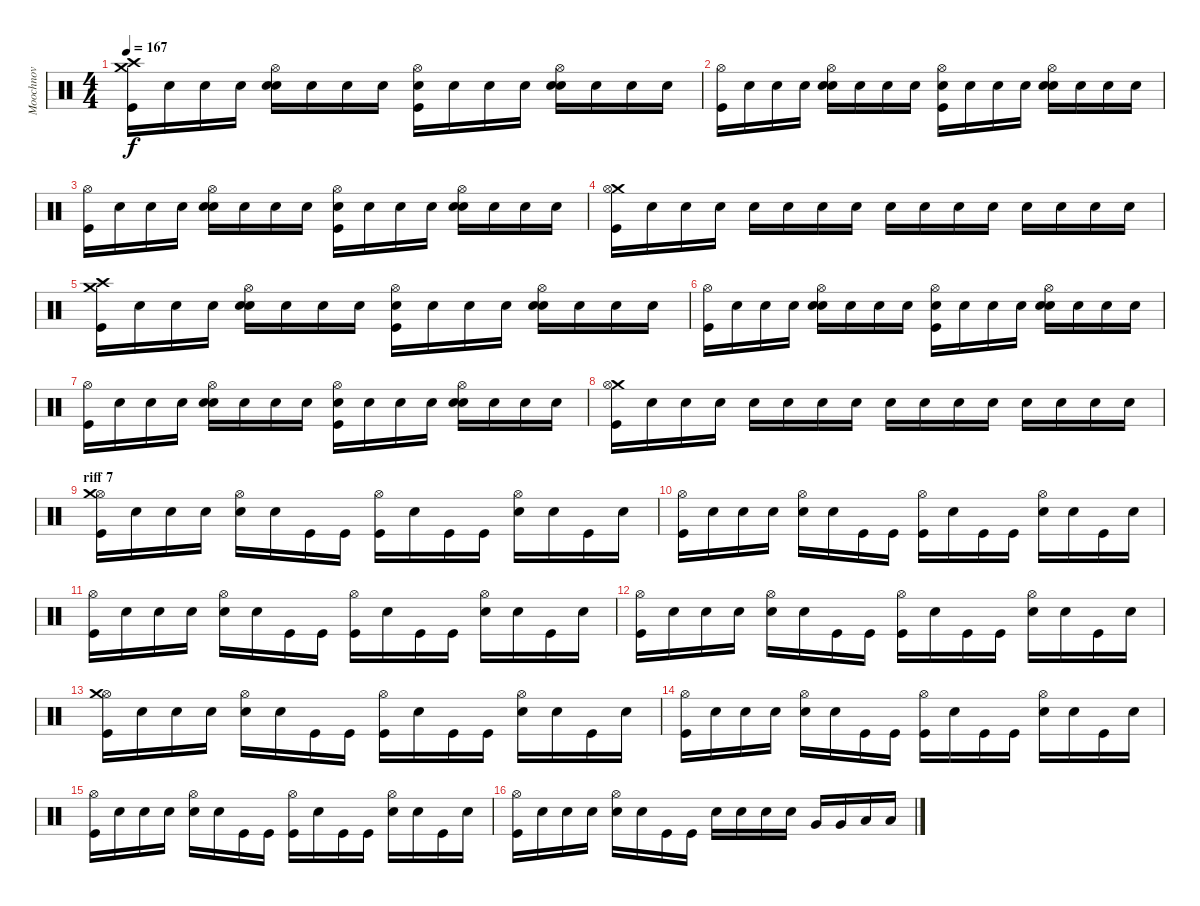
\track ("Moochnov" "Moochnov") {instrument percussion}
\staff {score}
\articulation defaults
\ts (4 4)
\tempo 167
\clef neutral
\ks c
("Kick (hit)" "Crash medium (hit)" "Crash high (hit)").16{dy f} "Snare (hit)"{x}.16 "Snare (hit)"{x}.16 "Snare (hit)"{x}.16 ("Snare (hit) 2" "Snare (hit)"{x} "Hi-Hat (open)").16 "Snare (hit)"{x}.16 "Snare (hit)"{x}.16 "Snare (hit)"{x}.16 ("Kick (hit)" "Snare (hit)"{x} "Hi-Hat (open)").16 "Snare (hit)"{x}.16 "Snare (hit)"{x}.16 "Snare (hit)"{x}.16 ("Snare (hit) 2" "Snare (hit)"{x} "Hi-Hat (open)").16 "Snare (hit)"{x}.16 "Snare (hit)"{x}.16 "Snare (hit)"{x}.16 |
("Kick (hit)" "Hi-Hat (open)").16 "Snare (hit)"{x}.16 "Snare (hit)"{x}.16 "Snare (hit)"{x}.16 ("Snare (hit) 2" "Snare (hit)"{x} "Hi-Hat (open)").16 "Snare (hit)"{x}.16 "Snare (hit)"{x}.16 "Snare (hit)"{x}.16 ("Kick (hit)" "Snare (hit)"{x} "Hi-Hat (open)").16 "Snare (hit)"{x}.16 "Snare (hit)"{x}.16 "Snare (hit)"{x}.16 ("Snare (hit) 2" "Snare (hit)"{x} "Hi-Hat (open)").16 "Snare (hit)"{x}.16 "Snare (hit)"{x}.16 "Snare (hit)"{x}.16 |
("Kick (hit)" "Hi-Hat (open)").16 "Snare (hit)"{x}.16 "Snare (hit)"{x}.16 "Snare (hit)"{x}.16 ("Snare (hit) 2" "Snare (hit)"{x} "Hi-Hat (open)").16 "Snare (hit)"{x}.16 "Snare (hit)"{x}.16 "Snare (hit)"{x}.16 ("Kick (hit)" "Snare (hit)"{x} "Hi-Hat (open)").16 "Snare (hit)"{x}.16 "Snare (hit)"{x}.16 "Snare (hit)"{x}.16 ("Snare (hit) 2" "Snare (hit)"{x} "Hi-Hat (open)").16 "Snare (hit)"{x}.16 "Snare (hit)"{x}.16 "Snare (hit)"{x}.16 |
("Kick (hit)" "Crash medium (hit)" "Hi-Hat (open)").16 "Snare (hit)"{x}.16 "Snare (hit)"{x}.16 "Snare (hit)"{x}.16 "Snare (hit)"{x}.16 "Snare (hit)"{x}.16 "Snare (hit)"{x}.16 "Snare (hit)"{x}.16 "Snare (hit)"{x}.16 "Snare (hit)"{x}.16 "Snare (hit)"{x}.16 "Snare (hit)"{x}.16 "Snare (hit)"{x}.16 "Snare (hit)"{x}.16 "Snare (hit)"{x}.16 "Snare (hit)"{x}.16 |
("Kick (hit)" "Crash medium (hit)" "Crash high (hit)").16 "Snare (hit)"{x}.16 "Snare (hit)"{x}.16 "Snare (hit)"{x}.16 ("Snare (hit) 2" "Snare (hit)"{x} "Hi-Hat (open)").16 "Snare (hit)"{x}.16 "Snare (hit)"{x}.16 "Snare (hit)"{x}.16 ("Kick (hit)" "Snare (hit)"{x} "Hi-Hat (open)").16 "Snare (hit)"{x}.16 "Snare (hit)"{x}.16 "Snare (hit)"{x}.16 ("Snare (hit) 2" "Snare (hit)"{x} "Hi-Hat (open)").16 "Snare (hit)"{x}.16 "Snare (hit)"{x}.16 "Snare (hit)"{x}.16 |
("Kick (hit)" "Hi-Hat (open)").16 "Snare (hit)"{x}.16 "Snare (hit)"{x}.16 "Snare (hit)"{x}.16 ("Snare (hit) 2" "Snare (hit)"{x} "Hi-Hat (open)").16 "Snare (hit)"{x}.16 "Snare (hit)"{x}.16 "Snare (hit)"{x}.16 ("Kick (hit)" "Snare (hit)"{x} "Hi-Hat (open)").16 "Snare (hit)"{x}.16 "Snare (hit)"{x}.16 "Snare (hit)"{x}.16 ("Snare (hit) 2" "Snare (hit)"{x} "Hi-Hat (open)").16 "Snare (hit)"{x}.16 "Snare (hit)"{x}.16 "Snare (hit)"{x}.16 |
("Kick (hit)" "Hi-Hat (open)").16 "Snare (hit)"{x}.16 "Snare (hit)"{x}.16 "Snare (hit)"{x}.16 ("Snare (hit) 2" "Snare (hit)"{x} "Hi-Hat (open)").16 "Snare (hit)"{x}.16 "Snare (hit)"{x}.16 "Snare (hit)"{x}.16 ("Kick (hit)" "Snare (hit)"{x} "Hi-Hat (open)").16 "Snare (hit)"{x}.16 "Snare (hit)"{x}.16 "Snare (hit)"{x}.16 ("Snare (hit) 2" "Snare (hit)"{x} "Hi-Hat (open)").16 "Snare (hit)"{x}.16 "Snare (hit)"{x}.16 "Snare (hit)"{x}.16 |
("Kick (hit)" "Crash medium (hit)" "Hi-Hat (open)").16 "Snare (hit)"{x}.16 "Snare (hit)"{x}.16 "Snare (hit)"{x}.16 "Snare (hit)"{x}.16 "Snare (hit)"{x}.16 "Snare (hit)"{x}.16 "Snare (hit)"{x}.16 "Snare (hit)"{x}.16 "Snare (hit)"{x}.16 "Snare (hit)"{x}.16 "Snare (hit)"{x}.16 "Snare (hit)"{x}.16 "Snare (hit)"{x}.16 "Snare (hit)"{x}.16 "Snare (hit)"{x}.16 |
\section ("" "riff 7")
("Kick (hit)" "Hi-Hat (open)" "Crash medium (hit)").16 "Snare (hit)"{x}.16 "Snare (hit)"{x}.16 "Snare (hit)"{x}.16 ("Snare (hit) 2" "Hi-Hat (open)").16 "Snare (hit)"{x}.16 "Kick (hit)".16 "Kick (hit)".16 ("Kick (hit)" "Hi-Hat (open)").16 "Snare (hit)"{x}.16 "Kick (hit)".16 "Kick (hit)".16 ("Snare (hit) 2" "Hi-Hat (open)").16 "Snare (hit)"{x}.16 "Kick (hit)".16 "Snare (hit)"{x}.16 |
("Kick (hit)" "Hi-Hat (open)").16 "Snare (hit)"{x}.16 "Snare (hit)"{x}.16 "Snare (hit)"{x}.16 ("Snare (hit) 2" "Hi-Hat (open)").16 "Snare (hit)"{x}.16 "Kick (hit)".16 "Kick (hit)".16 ("Kick (hit)" "Hi-Hat (open)").16 "Snare (hit)"{x}.16 "Kick (hit)".16 "Kick (hit)".16 ("Snare (hit) 2" "Hi-Hat (open)").16 "Snare (hit)"{x}.16 "Kick (hit)".16 "Snare (hit)"{x}.16 |
("Kick (hit)" "Hi-Hat (open)").16 "Snare (hit)"{x}.16 "Snare (hit)"{x}.16 "Snare (hit)"{x}.16 ("Snare (hit) 2" "Hi-Hat (open)").16 "Snare (hit)"{x}.16 "Kick (hit)".16 "Kick (hit)".16 ("Kick (hit)" "Hi-Hat (open)").16 "Snare (hit)"{x}.16 "Kick (hit)".16 "Kick (hit)".16 ("Snare (hit) 2" "Hi-Hat (open)").16 "Snare (hit)"{x}.16 "Kick (hit)".16 "Snare (hit)"{x}.16 |
("Kick (hit)" "Hi-Hat (open)").16 "Snare (hit)"{x}.16 "Snare (hit)"{x}.16 "Snare (hit)"{x}.16 ("Snare (hit) 2" "Hi-Hat (open)").16 "Snare (hit)"{x}.16 "Kick (hit)".16 "Kick (hit)".16 ("Kick (hit)" "Hi-Hat (open)").16 "Snare (hit)"{x}.16 "Kick (hit)".16 "Kick (hit)".16 ("Snare (hit) 2" "Hi-Hat (open)").16 "Snare (hit)"{x}.16 "Kick (hit)".16 "Snare (hit)"{x}.16 |
("Kick (hit)" "Hi-Hat (open)" "Crash medium (hit)").16 "Snare (hit)"{x}.16 "Snare (hit)"{x}.16 "Snare (hit)"{x}.16 ("Snare (hit) 2" "Hi-Hat (open)").16 "Snare (hit)"{x}.16 "Kick (hit)".16 "Kick (hit)".16 ("Kick (hit)" "Hi-Hat (open)").16 "Snare (hit)"{x}.16 "Kick (hit)".16 "Kick (hit)".16 ("Snare (hit) 2" "Hi-Hat (open)").16 "Snare (hit)"{x}.16 "Kick (hit)".16 "Snare (hit)"{x}.16 |
("Kick (hit)" "Hi-Hat (open)").16 "Snare (hit)"{x}.16 "Snare (hit)"{x}.16 "Snare (hit)"{x}.16 ("Snare (hit) 2" "Hi-Hat (open)").16 "Snare (hit)"{x}.16 "Kick (hit)".16 "Kick (hit)".16 ("Kick (hit)" "Hi-Hat (open)").16 "Snare (hit)"{x}.16 "Kick (hit)".16 "Kick (hit)".16 ("Snare (hit) 2" "Hi-Hat (open)").16 "Snare (hit)"{x}.16 "Kick (hit)".16 "Snare (hit)"{x}.16 |
("Kick (hit)" "Hi-Hat (open)").16 "Snare (hit)"{x}.16 "Snare (hit)"{x}.16 "Snare (hit)"{x}.16 ("Snare (hit) 2" "Hi-Hat (open)").16 "Snare (hit)"{x}.16 "Kick (hit)".16 "Kick (hit)".16 ("Kick (hit)" "Hi-Hat (open)").16 "Snare (hit)"{x}.16 "Kick (hit)".16 "Kick (hit)".16 ("Snare (hit) 2" "Hi-Hat (open)").16 "Snare (hit)"{x}.16 "Kick (hit)".16 "Snare (hit)"{x}.16 |
("Kick (hit)" "Hi-Hat (open)").16 "Snare (hit)"{x}.16 "Snare (hit)"{x}.16 "Snare (hit)"{x}.16 ("Snare (hit) 2" "Hi-Hat (open)").16 "Snare (hit)"{x}.16 "Kick (hit)".16 "Kick (hit)".16 "Snare (hit) 2".16 "Snare (hit) 2".16 "Snare (hit) 2".16 "Snare (hit) 2".16 "Very Low Tom (hit)".16 "Very Low Tom (hit)".16 "Low Floor Tom (hit)".16 "Low Floor Tom (hit)".16
